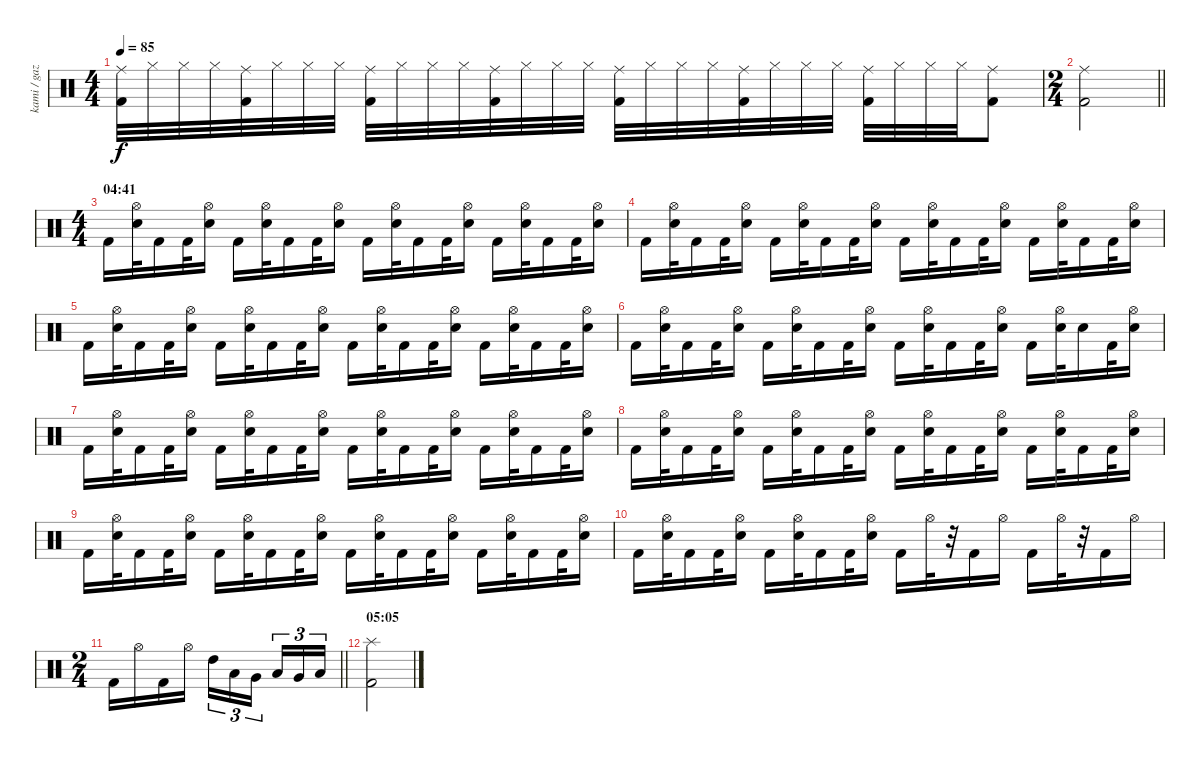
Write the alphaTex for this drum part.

\track ("kami / gaz (?)" "kami / gaz") {instrument percussion}
\staff {score}
\articulation defaults
\ts (4 4)
\tempo 85
\clef neutral
\ks c
("Kick (hit) 2" "Ride (middle)").32{dy f} "Hi-Hat (closed)".32 "Hi-Hat (closed)".32 "Hi-Hat (closed)".32 ("Kick (hit) 2" "Ride (middle)").32 "Hi-Hat (closed)".32 "Hi-Hat (closed)".32 "Hi-Hat (closed)".32 ("Kick (hit) 2" "Ride (middle)").32 "Hi-Hat (closed)".32 "Hi-Hat (closed)".32 "Hi-Hat (closed)".32 ("Kick (hit) 2" "Ride (middle)").32 "Hi-Hat (closed)".32 "Hi-Hat (closed)".32 "Hi-Hat (closed)".32 ("Kick (hit) 2" "Ride (middle)").32 "Hi-Hat (closed)".32 "Hi-Hat (closed)".32 "Hi-Hat (closed)".32 ("Kick (hit) 2" "Ride (middle)").32 "Hi-Hat (closed)".32 "Hi-Hat (closed)".32 "Hi-Hat (closed)".32 ("Kick (hit) 2" "Ride (middle)").32 "Hi-Hat (closed)".32 "Hi-Hat (closed)".32 "Hi-Hat (closed)".32 ("Kick (hit) 2" "Ride (middle)").8 |
\ts (2 4)
\barLineRight lightlight
("Kick (hit) 2" "Ride (middle)").2 |
\ts (4 4)
\section ("" "04:41")
"Kick (hit) 2".16 ("Electric Snare (hit)" "Hi-Hat (open)").32 "Kick (hit) 2".16 "Kick (hit) 2".32 ("Electric Snare (hit)" "Hi-Hat (open)").16 "Kick (hit) 2".16 ("Electric Snare (hit)" "Hi-Hat (open)").32 "Kick (hit) 2".16 "Kick (hit) 2".32 ("Electric Snare (hit)" "Hi-Hat (open)").16 "Kick (hit) 2".16 ("Electric Snare (hit)" "Hi-Hat (open)").32 "Kick (hit) 2".16 "Kick (hit) 2".32 ("Electric Snare (hit)" "Hi-Hat (open)").16 "Kick (hit) 2".16 ("Electric Snare (hit)" "Hi-Hat (open)").32 "Kick (hit) 2".16 "Kick (hit) 2".32 ("Electric Snare (hit)" "Hi-Hat (open)").16 |
"Kick (hit) 2".16 ("Electric Snare (hit)" "Hi-Hat (open)").32 "Kick (hit) 2".16 "Kick (hit) 2".32 ("Electric Snare (hit)" "Hi-Hat (open)").16 "Kick (hit) 2".16 ("Electric Snare (hit)" "Hi-Hat (open)").32 "Kick (hit) 2".16 "Kick (hit) 2".32 ("Electric Snare (hit)" "Hi-Hat (open)").16 "Kick (hit) 2".16 ("Electric Snare (hit)" "Hi-Hat (open)").32 "Kick (hit) 2".16 "Kick (hit) 2".32 ("Electric Snare (hit)" "Hi-Hat (open)").16 "Kick (hit) 2".16 ("Electric Snare (hit)" "Hi-Hat (open)").32 "Kick (hit) 2".16 "Kick (hit) 2".32 ("Electric Snare (hit)" "Hi-Hat (open)").16 |
"Kick (hit) 2".16 ("Electric Snare (hit)" "Hi-Hat (open)").32 "Kick (hit) 2".16 "Kick (hit) 2".32 ("Electric Snare (hit)" "Hi-Hat (open)").16 "Kick (hit) 2".16 ("Electric Snare (hit)" "Hi-Hat (open)").32 "Kick (hit) 2".16 "Kick (hit) 2".32 ("Electric Snare (hit)" "Hi-Hat (open)").16 "Kick (hit) 2".16 ("Electric Snare (hit)" "Hi-Hat (open)").32 "Kick (hit) 2".16 "Kick (hit) 2".32 ("Electric Snare (hit)" "Hi-Hat (open)").16 "Kick (hit) 2".16 ("Electric Snare (hit)" "Hi-Hat (open)").32 "Kick (hit) 2".16 "Kick (hit) 2".32 ("Electric Snare (hit)" "Hi-Hat (open)").16 |
"Kick (hit) 2".16 ("Electric Snare (hit)" "Hi-Hat (open)").32 "Kick (hit) 2".16 "Kick (hit) 2".32 ("Electric Snare (hit)" "Hi-Hat (open)").16 "Kick (hit) 2".16 ("Electric Snare (hit)" "Hi-Hat (open)").32 "Kick (hit) 2".16 "Kick (hit) 2".32 ("Electric Snare (hit)" "Hi-Hat (open)").16 "Kick (hit) 2".16 ("Electric Snare (hit)" "Hi-Hat (open)").32 "Kick (hit) 2".16 "Kick (hit) 2".32 ("Electric Snare (hit)" "Hi-Hat (open)").16 "Kick (hit) 2".16 ("Electric Snare (hit)" "Hi-Hat (open)").32 "Electric Snare (hit)".16 "Kick (hit) 2".32 ("Electric Snare (hit)" "Hi-Hat (open)").16 |
"Kick (hit) 2".16 ("Electric Snare (hit)" "Hi-Hat (open)").32 "Kick (hit) 2".16 "Kick (hit) 2".32 ("Electric Snare (hit)" "Hi-Hat (open)").16 "Kick (hit) 2".16 ("Electric Snare (hit)" "Hi-Hat (open)").32 "Kick (hit) 2".16 "Kick (hit) 2".32 ("Electric Snare (hit)" "Hi-Hat (open)").16 "Kick (hit) 2".16 ("Electric Snare (hit)" "Hi-Hat (open)").32 "Kick (hit) 2".16 "Kick (hit) 2".32 ("Electric Snare (hit)" "Hi-Hat (open)").16 "Kick (hit) 2".16 ("Electric Snare (hit)" "Hi-Hat (open)").32 "Kick (hit) 2".16 "Kick (hit) 2".32 ("Electric Snare (hit)" "Hi-Hat (open)").16 |
"Kick (hit) 2".16 ("Electric Snare (hit)" "Hi-Hat (open)").32 "Kick (hit) 2".16 "Kick (hit) 2".32 ("Electric Snare (hit)" "Hi-Hat (open)").16 "Kick (hit) 2".16 ("Electric Snare (hit)" "Hi-Hat (open)").32 "Kick (hit) 2".16 "Kick (hit) 2".32 ("Electric Snare (hit)" "Hi-Hat (open)").16 "Kick (hit) 2".16 ("Electric Snare (hit)" "Hi-Hat (open)").32 "Kick (hit) 2".16 "Kick (hit) 2".32 ("Electric Snare (hit)" "Hi-Hat (open)").16 "Kick (hit) 2".16 ("Electric Snare (hit)" "Hi-Hat (open)").32 "Kick (hit) 2".16 "Kick (hit) 2".32 ("Electric Snare (hit)" "Hi-Hat (open)").16 |
"Kick (hit) 2".16 ("Electric Snare (hit)" "Hi-Hat (open)").32 "Kick (hit) 2".16 "Kick (hit) 2".32 ("Electric Snare (hit)" "Hi-Hat (open)").16 "Kick (hit) 2".16 ("Electric Snare (hit)" "Hi-Hat (open)").32 "Kick (hit) 2".16 "Kick (hit) 2".32 ("Electric Snare (hit)" "Hi-Hat (open)").16 "Kick (hit) 2".16 ("Electric Snare (hit)" "Hi-Hat (open)").32 "Kick (hit) 2".16 "Kick (hit) 2".32 ("Electric Snare (hit)" "Hi-Hat (open)").16 "Kick (hit) 2".16 ("Electric Snare (hit)" "Hi-Hat (open)").32 "Kick (hit) 2".16 "Kick (hit) 2".32 ("Electric Snare (hit)" "Hi-Hat (open)").16 |
"Kick (hit) 2".16 ("Electric Snare (hit)" "Hi-Hat (open)").32 "Kick (hit) 2".16 "Kick (hit) 2".32 ("Electric Snare (hit)" "Hi-Hat (open)").16 "Kick (hit) 2".16 ("Electric Snare (hit)" "Hi-Hat (open)").32 "Kick (hit) 2".16 "Kick (hit) 2".32 ("Electric Snare (hit)" "Hi-Hat (open)").16 "Kick (hit) 2".16 "Hi-Hat (open)".32 r.32 "Kick (hit) 2".16 "Hi-Hat (open)".16 "Kick (hit) 2".16 "Hi-Hat (open)".32 r.32 "Kick (hit) 2".16 "Hi-Hat (open)".16 |
\ts (2 4)
\barLineRight lightlight "Kick (hit) 2".16 "Hi-Hat (open)".16 "Kick (hit) 2".16 "Hi-Hat (open)".16 "High Tom (hit)".16{tu (3 2)} "Low Tom (hit)".16{tu (3 2)} "Very Low Tom (hit)".16{tu (3 2)} "Low Floor Tom (hit)".16{tu (3 2)} "Very Low Tom (hit)".16{tu (3 2)} "Low Tom (hit)".16{tu (3 2)}
|
\section ("" "05:05")
("Kick (hit) 2" "Splash (hit)").2
